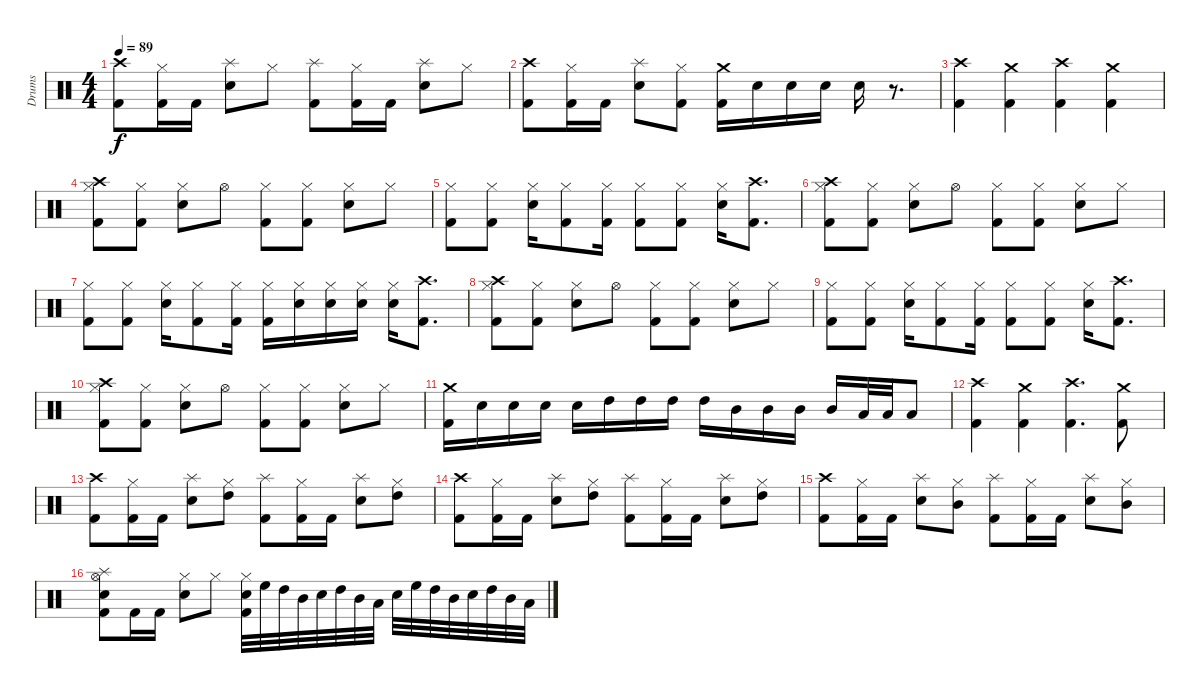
\track ("Drums" "Drums") {instrument percussion}
\staff {score}
\articulation defaults
\ts (4 4)
\tempo 89
\clef neutral
\ks c
("Kick (hit) 2" "Crash high (hit)").8{dy f} ("Kick (hit) 2" "Hi-Hat (closed)").16 "Kick (hit) 2".16 ("Snare (hit) 2" "Splash (hit)").8 "Hi-Hat (closed)".8 ("Kick (hit) 2" "Splash (hit)").8 ("Kick (hit) 2" "Hi-Hat (closed)").16 "Kick (hit) 2".16 ("Snare (hit) 2" "Splash (hit)").8 "Hi-Hat (closed)".8 |
("Kick (hit) 2" "Crash high (hit)").8 ("Kick (hit) 2" "Hi-Hat (closed)").16 "Kick (hit) 2".16 ("Snare (hit) 2" "Splash (hit)").8 ("Kick (hit) 2" "Hi-Hat (closed)").8 ("Kick (hit) 2" "Crash medium (hit)").16 "Snare (hit) 2".16 "Snare (hit) 2".16 "Snare (hit) 2".16 "Snare (hit) 2".16 r.8{d} |
("Kick (hit) 2" "Crash high (hit)").4 ("Kick (hit) 2" "Crash medium (hit)").4 ("Kick (hit) 2" "Crash high (hit)").4 ("Kick (hit) 2" "Crash medium (hit)").4 |
("Kick (hit) 2" "Hi-Hat (closed)" "Crash high (hit)").8 ("Kick (hit) 2" "Hi-Hat (closed)").8 ("Snare (hit) 2" "Hi-Hat (closed)").8 "Hi-Hat (open)".8 ("Kick (hit) 2" "Hi-Hat (closed)").8 ("Kick (hit) 2" "Hi-Hat (closed)").8 ("Snare (hit) 2" "Hi-Hat (closed)").8 "Hi-Hat (closed)".8 |
("Kick (hit) 2" "Hi-Hat (closed)").8 ("Kick (hit) 2" "Hi-Hat (closed)").8 ("Snare (hit) 2" "Hi-Hat (closed)").16 ("Kick (hit) 2" "Hi-Hat (closed)").8 ("Kick (hit) 2" "Hi-Hat (closed)").16 ("Kick (hit) 2" "Hi-Hat (closed)").8 ("Kick (hit) 2" "Hi-Hat (closed)").8 ("Snare (hit) 2" "Hi-Hat (closed)").16 ("Kick (hit) 2" "Crash high (hit)").8{d} |
("Kick (hit) 2" "Hi-Hat (closed)" "Crash high (hit)").8 ("Kick (hit) 2" "Hi-Hat (closed)").8 ("Snare (hit) 2" "Hi-Hat (closed)").8 "Hi-Hat (open)".8 ("Kick (hit) 2" "Hi-Hat (closed)").8 ("Kick (hit) 2" "Hi-Hat (closed)").8 ("Snare (hit) 2" "Hi-Hat (closed)").8 "Hi-Hat (closed)".8 |
("Kick (hit) 2" "Hi-Hat (closed)").8 ("Kick (hit) 2" "Hi-Hat (closed)").8 ("Snare (hit) 2" "Hi-Hat (closed)").16 ("Kick (hit) 2" "Hi-Hat (closed)").8 ("Kick (hit) 2" "Hi-Hat (closed)").16 ("Kick (hit) 2" "Hi-Hat (closed)").16 ("Snare (hit) 2" "Hi-Hat (closed)").16 ("Snare (hit) 2" "Hi-Hat (closed)").16 ("Snare (hit) 2" "Hi-Hat (closed)").16 ("Snare (hit) 2" "Hi-Hat (closed)").16 ("Kick (hit) 2" "Crash high (hit)").8{d} |
("Kick (hit) 2" "Hi-Hat (closed)" "Crash high (hit)").8 ("Kick (hit) 2" "Hi-Hat (closed)").8 ("Snare (hit) 2" "Hi-Hat (closed)").8 "Hi-Hat (open)".8 ("Kick (hit) 2" "Hi-Hat (closed)").8 ("Kick (hit) 2" "Hi-Hat (closed)").8 ("Snare (hit) 2" "Hi-Hat (closed)").8 "Hi-Hat (closed)".8 |
("Kick (hit) 2" "Hi-Hat (closed)").8 ("Kick (hit) 2" "Hi-Hat (closed)").8 ("Snare (hit) 2" "Hi-Hat (closed)").16 ("Kick (hit) 2" "Hi-Hat (closed)").8 ("Kick (hit) 2" "Hi-Hat (closed)").16 ("Kick (hit) 2" "Hi-Hat (closed)").8 ("Kick (hit) 2" "Hi-Hat (closed)").8 ("Snare (hit) 2" "Hi-Hat (closed)").16 ("Kick (hit) 2" "Crash high (hit)").8{d} |
("Kick (hit) 2" "Hi-Hat (closed)" "Crash high (hit)").8 ("Kick (hit) 2" "Hi-Hat (closed)").8 ("Snare (hit) 2" "Hi-Hat (closed)").8 "Hi-Hat (open)".8 ("Kick (hit) 2" "Hi-Hat (closed)").8 ("Kick (hit) 2" "Hi-Hat (closed)").8 ("Snare (hit) 2" "Hi-Hat (closed)").8 "Hi-Hat (closed)".8 |
("Kick (hit) 2" "Crash medium (hit)").16 "Snare (hit) 2".16 "Snare (hit) 2".16 "Snare (hit) 2".16 "Snare (hit) 2".16 "High Tom (hit)".16 "High Tom (hit)".16 "High Tom (hit)".16 "High Tom (hit)".16 "Mid Tom (hit)".16 "Mid Tom (hit)".16 "Mid Tom (hit)".16 "Mid Tom (hit)".16 "Low Tom (hit)".32 "Low Tom (hit)".32 "Low Tom (hit)".8 |
("Kick (hit) 2" "Crash high (hit)").4 ("Kick (hit) 2" "Crash medium (hit)").4 ("Kick (hit) 2" "Crash high (hit)").4{d} ("Kick (hit) 2" "Crash medium (hit)").8 |
("Kick (hit) 2" "Crash high (hit)").8 ("Kick (hit) 2" "Hi-Hat (closed)").16 "Kick (hit) 2".16 ("Snare (hit) 2" "Splash (hit)").8 ("Hi-Hat (closed)" "High Tom (hit)").8 ("Kick (hit) 2" "Splash (hit)").8 ("Kick (hit) 2" "Hi-Hat (closed)").16 "Kick (hit) 2".16 ("Snare (hit) 2" "Splash (hit)").8 ("Hi-Hat (closed)" "High Tom (hit)").8 |
("Kick (hit) 2" "Crash high (hit)").8 ("Kick (hit) 2" "Hi-Hat (closed)").16 "Kick (hit) 2".16 ("Snare (hit) 2" "Splash (hit)").8 ("Hi-Hat (closed)" "High Tom (hit)").8 ("Kick (hit) 2" "Splash (hit)").8 ("Kick (hit) 2" "Hi-Hat (closed)").16 "Kick (hit) 2".16 ("Snare (hit) 2" "Splash (hit)").8 ("Hi-Hat (closed)" "High Tom (hit)").8 |
("Kick (hit) 2" "Crash high (hit)").8 ("Kick (hit) 2" "Hi-Hat (closed)").16 "Kick (hit) 2".16 ("Snare (hit) 2" "Splash (hit)").8 ("Hi-Hat (closed)" "Mid Tom (hit)").8 ("Kick (hit) 2" "Splash (hit)").8 ("Kick (hit) 2" "Hi-Hat (closed)").16 "Kick (hit) 2".16 ("Snare (hit) 2" "Splash (hit)").8 ("Hi-Hat (closed)" "Mid Tom (hit)").8 |
("Kick (hit) 2" "Snare (hit) 2" "Hi-Hat (open)" "Splash (hit)").8 "Kick (hit) 2".16 "Kick (hit) 2".16 ("Snare (hit) 2" "Hi-Hat (closed)").8 "Hi-Hat (closed)".8 ("Kick (hit) 2" "Snare (hit) 2" "Hi-Hat (closed)").32 "High Floor Tom (hit)".32 "High Tom (hit)".32 "Mid Tom (hit)".32 "Snare (hit) 2".32 "High Tom (hit)".32 "Mid Tom (hit)".32 "Low Tom (hit)".32 "Snare (hit) 2".32 "High Floor Tom (hit)".32 "High Tom (hit)".32 "Mid Tom (hit)".32 "Snare (hit) 2".32 "High Tom (hit)".32 "Mid Tom (hit)".32 "Low Tom (hit)".32
